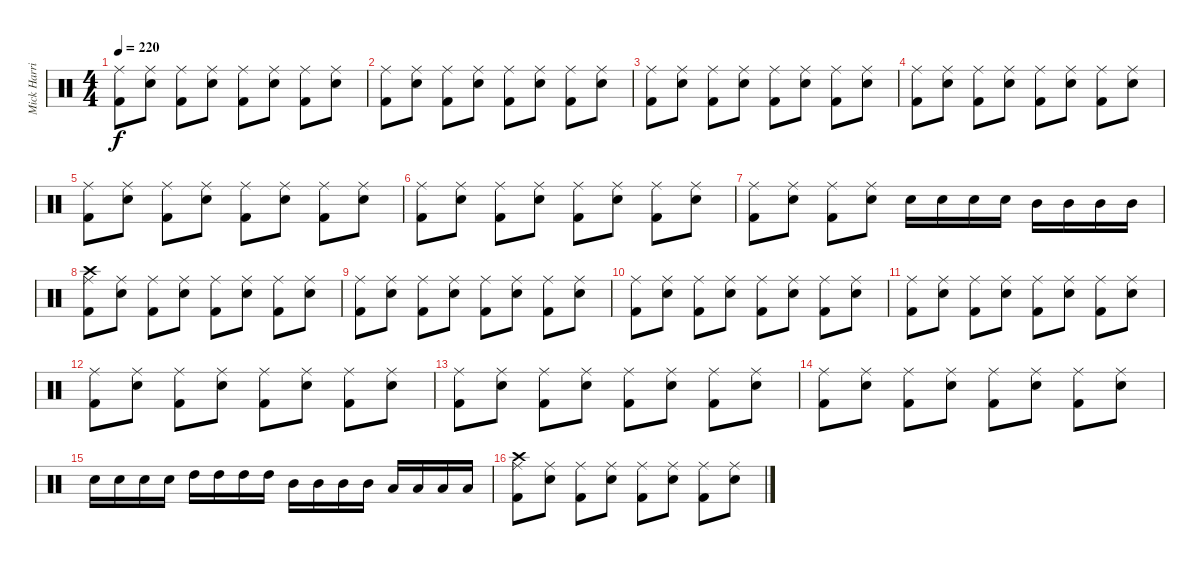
\track ("Mick Harris (Drums)" "Mick Harri") {instrument percussion}
\staff {score}
\articulation defaults
\ts (4 4)
\tempo 220
\clef neutral
\ks c
("Kick (hit) 2" "Ride (middle)").8{dy f} ("Electric Snare (hit)" "Ride (middle)").8 ("Kick (hit) 2" "Ride (middle)").8 ("Electric Snare (hit)" "Ride (middle)").8 ("Kick (hit) 2" "Ride (middle)").8 ("Electric Snare (hit)" "Ride (middle)").8 ("Kick (hit) 2" "Ride (middle)").8 ("Electric Snare (hit)" "Ride (middle)").8 |
("Kick (hit) 2" "Ride (middle)").8 ("Electric Snare (hit)" "Ride (middle)").8 ("Kick (hit) 2" "Ride (middle)").8 ("Electric Snare (hit)" "Ride (middle)").8 ("Kick (hit) 2" "Ride (middle)").8 ("Electric Snare (hit)" "Ride (middle)").8 ("Kick (hit) 2" "Ride (middle)").8 ("Electric Snare (hit)" "Ride (middle)").8 |
("Kick (hit) 2" "Ride (middle)").8 ("Electric Snare (hit)" "Ride (middle)").8 ("Kick (hit) 2" "Ride (middle)").8 ("Electric Snare (hit)" "Ride (middle)").8 ("Kick (hit) 2" "Ride (middle)").8 ("Electric Snare (hit)" "Ride (middle)").8 ("Kick (hit) 2" "Ride (middle)").8 ("Electric Snare (hit)" "Ride (middle)").8 |
("Kick (hit) 2" "Ride (middle)").8 ("Electric Snare (hit)" "Ride (middle)").8 ("Kick (hit) 2" "Ride (middle)").8 ("Electric Snare (hit)" "Ride (middle)").8 ("Kick (hit) 2" "Ride (middle)").8 ("Electric Snare (hit)" "Ride (middle)").8 ("Kick (hit) 2" "Ride (middle)").8 ("Electric Snare (hit)" "Ride (middle)").8 |
("Kick (hit) 2" "Ride (middle)").8 ("Electric Snare (hit)" "Ride (middle)").8 ("Kick (hit) 2" "Ride (middle)").8 ("Electric Snare (hit)" "Ride (middle)").8 ("Kick (hit) 2" "Ride (middle)").8 ("Electric Snare (hit)" "Ride (middle)").8 ("Kick (hit) 2" "Ride (middle)").8 ("Electric Snare (hit)" "Ride (middle)").8 |
("Kick (hit) 2" "Ride (middle)").8 ("Electric Snare (hit)" "Ride (middle)").8 ("Kick (hit) 2" "Ride (middle)").8 ("Electric Snare (hit)" "Ride (middle)").8 ("Kick (hit) 2" "Ride (middle)").8 ("Electric Snare (hit)" "Ride (middle)").8 ("Kick (hit) 2" "Ride (middle)").8 ("Electric Snare (hit)" "Ride (middle)").8 |
("Kick (hit) 2" "Ride (middle)").8 ("Electric Snare (hit)" "Ride (middle)").8 ("Kick (hit) 2" "Ride (middle)").8 ("Electric Snare (hit)" "Ride (middle)").8 "Electric Snare (hit)".16 "Electric Snare (hit)".16 "Electric Snare (hit)".16 "Electric Snare (hit)".16 "Mid Tom (hit)".16 "Mid Tom (hit)".16 "Mid Tom (hit)".16 "Mid Tom (hit)".16 |
("Kick (hit) 2" "Crash high (hit)" "Ride (middle)").8 ("Electric Snare (hit)" "Ride (middle)").8 ("Kick (hit) 2" "Ride (middle)").8 ("Electric Snare (hit)" "Ride (middle)").8 ("Kick (hit) 2" "Ride (middle)").8 ("Electric Snare (hit)" "Ride (middle)").8 ("Kick (hit) 2" "Ride (middle)").8 ("Electric Snare (hit)" "Ride (middle)").8 |
("Kick (hit) 2" "Ride (middle)").8 ("Electric Snare (hit)" "Ride (middle)").8 ("Kick (hit) 2" "Ride (middle)").8 ("Electric Snare (hit)" "Ride (middle)").8 ("Kick (hit) 2" "Ride (middle)").8 ("Electric Snare (hit)" "Ride (middle)").8 ("Kick (hit) 2" "Ride (middle)").8 ("Electric Snare (hit)" "Ride (middle)").8 |
("Kick (hit) 2" "Ride (middle)").8 ("Electric Snare (hit)" "Ride (middle)").8 ("Kick (hit) 2" "Ride (middle)").8 ("Electric Snare (hit)" "Ride (middle)").8 ("Kick (hit) 2" "Ride (middle)").8 ("Electric Snare (hit)" "Ride (middle)").8 ("Kick (hit) 2" "Ride (middle)").8 ("Electric Snare (hit)" "Ride (middle)").8 |
("Kick (hit) 2" "Ride (middle)").8 ("Electric Snare (hit)" "Ride (middle)").8 ("Kick (hit) 2" "Ride (middle)").8 ("Electric Snare (hit)" "Ride (middle)").8 ("Kick (hit) 2" "Ride (middle)").8 ("Electric Snare (hit)" "Ride (middle)").8 ("Kick (hit) 2" "Ride (middle)").8 ("Electric Snare (hit)" "Ride (middle)").8 |
("Kick (hit) 2" "Ride (middle)").8 ("Electric Snare (hit)" "Ride (middle)").8 ("Kick (hit) 2" "Ride (middle)").8 ("Electric Snare (hit)" "Ride (middle)").8 ("Kick (hit) 2" "Ride (middle)").8 ("Electric Snare (hit)" "Ride (middle)").8 ("Kick (hit) 2" "Ride (middle)").8 ("Electric Snare (hit)" "Ride (middle)").8 |
("Kick (hit) 2" "Ride (middle)").8 ("Electric Snare (hit)" "Ride (middle)").8 ("Kick (hit) 2" "Ride (middle)").8 ("Electric Snare (hit)" "Ride (middle)").8 ("Kick (hit) 2" "Ride (middle)").8 ("Electric Snare (hit)" "Ride (middle)").8 ("Kick (hit) 2" "Ride (middle)").8 ("Electric Snare (hit)" "Ride (middle)").8 |
("Kick (hit) 2" "Ride (middle)").8 ("Electric Snare (hit)" "Ride (middle)").8 ("Kick (hit) 2" "Ride (middle)").8 ("Electric Snare (hit)" "Ride (middle)").8 ("Kick (hit) 2" "Ride (middle)").8 ("Electric Snare (hit)" "Ride (middle)").8 ("Kick (hit) 2" "Ride (middle)").8 ("Electric Snare (hit)" "Ride (middle)").8 |
"Electric Snare (hit)".16 "Electric Snare (hit)".16 "Electric Snare (hit)".16 "Electric Snare (hit)".16 "High Tom (hit)".16 "High Tom (hit)".16 "High Tom (hit)".16 "High Tom (hit)".16 "Mid Tom (hit)".16 "Mid Tom (hit)".16 "Mid Tom (hit)".16 "Mid Tom (hit)".16 "Low Tom (hit)".16 "Low Tom (hit)".16 "Low Tom (hit)".16 "Low Tom (hit)".16 |
("Kick (hit) 2" "Crash high (hit)" "Ride (middle)").8 ("Electric Snare (hit)" "Ride (middle)").8 ("Kick (hit) 2" "Ride (middle)").8 ("Electric Snare (hit)" "Ride (middle)").8 ("Kick (hit) 2" "Ride (middle)").8 ("Electric Snare (hit)" "Ride (middle)").8 ("Kick (hit) 2" "Ride (middle)").8 ("Electric Snare (hit)" "Ride (middle)").8
